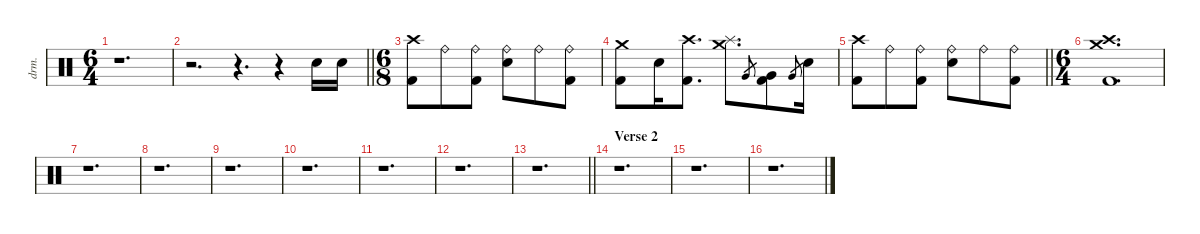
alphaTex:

\defaultSystemsLayout 4
\hideDynamics
\bracketExtendMode nobrackets
\otherSystemsTrackNameOrientation horizontal
\track ("Drums" "drm.") {defaultSystemsLayout 4 instrument percussion}
\staff {score}
\articulation defaults
\ts (6 4)
\tempo (93 hide)
\clef neutral
\ks aminor
r.1{d dy f beam Down} |
\tempo (91.5 0.00625 hide)
\barLineRight lightlight
r.2{d beam Down} r.4{d beam Down} r.4{beam Down} "Snare (hit) 2".16{dy fff beam Down} "Snare (hit) 2".16{beam Down} |
\ts (6 8)
\beaming (8 3 3)
\tempo (93 hide)
("Crash high (hit)" "Kick (hit) 2").8{beam Down} "Ride (bell)".8{dy f beam Down} ("Ride (bell)" "Kick (hit) 2").8{beam Down} ("Ride (bell)" "Snare (hit) 2").8{beam Down} "Ride (bell)".8{beam Down} ("Ride (bell)" "Kick (hit) 2").8{beam Down} |
("Crash medium (hit)" "Kick (hit) 2").8{dy fff beam Down} "Snare (hit) 2".16{dy ff beam Down} ("Crash high (hit)" "Kick (hit) 2").8{d dy fff beam Down} ("Crash medium (hit)" "Splash (hit)").8{d beam Down} "Very Low Tom (hit)".8{gr dy f beam Up} ("Very Low Tom (hit)" "Kick (hit) 2").8{beam Down} "Very Low Tom (hit)".8{gr dy ff beam Up} "Snare (hit) 2".16{dy fff beam Down} |
\tempo (93 0.00625 hide)
\tempo (91.5 0.99375 hide)
\barLineRight lightlight
("Crash high (hit)" "Kick (hit) 2").8{beam Down} "Ride (bell)".8{dy f beam Down} ("Ride (bell)" "Kick (hit) 2").8{beam Down} ("Ride (bell)" "Snare (hit) 2").8{beam Down} "Ride (bell)".8{beam Down} ("Ride (bell)" "Kick (hit) 2").8{beam Down} |
\ts (6 4)
\beaming (8 3 3 3 3)
("Crash high (hit)" "Crash medium (hit)" "Kick (hit) 2").1{d dy fff beam Down} |
\tempo (93 hide)
r.1{d beam Down} |
r.1{d beam Down} |
\tempo (93 0.00625 hide)
r.1{d beam Down} |
\tempo (91.5 0.00625 hide)
r.1{d beam Down} |
\tempo (93 hide)
r.1{d beam Down} |
r.1{d beam Down} |
\tempo (93 0.00625 hide)
\tempo (91.5 0.99375 hide)
\barLineRight lightlight
r.1{d beam Down} |
\section ("" "Verse 2")
r.1{d beam Down} |
\tempo (93 hide)
r.1{d beam Down} |
r.1{d beam Down}
